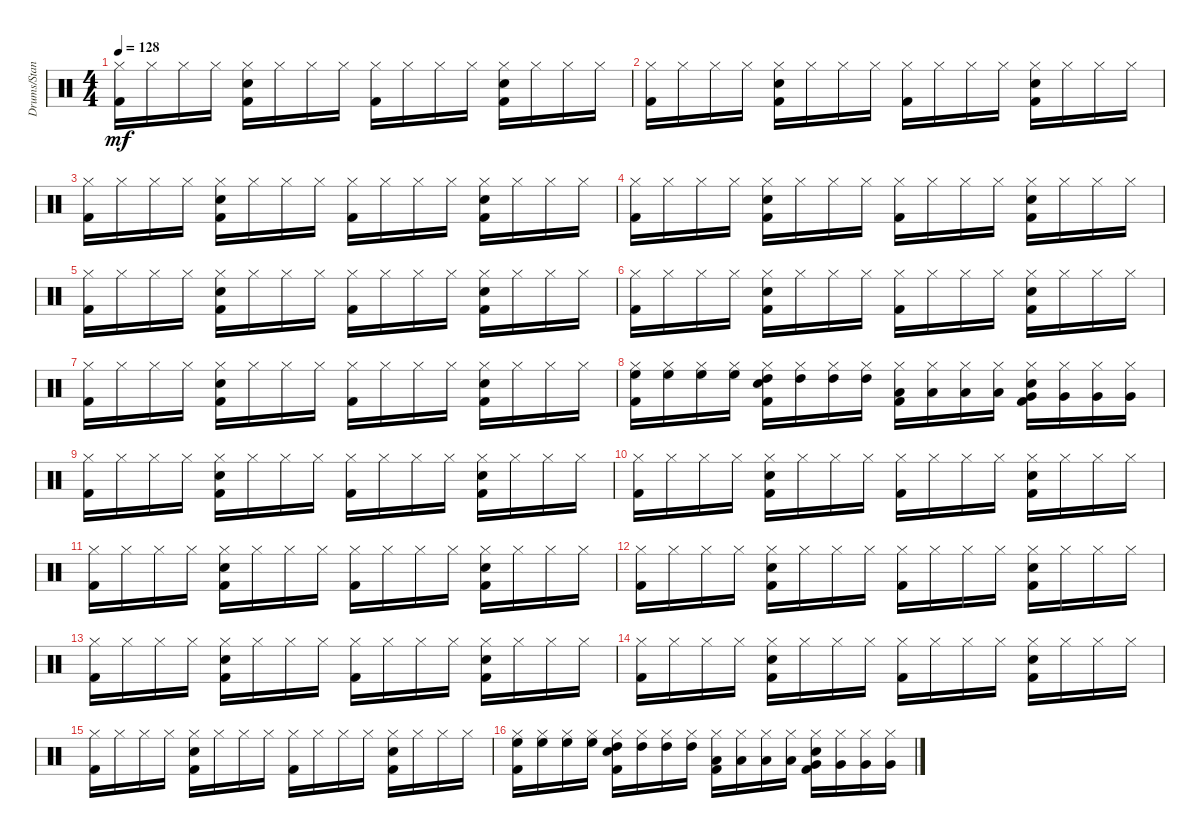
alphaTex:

\track ("Drums/Standard" "Drums/Stan") {instrument percussion}
\staff {score}
\articulation defaults
\ts (4 4)
\tempo 128
\clef neutral
\ks c
("Hi-Hat (closed)" "Kick (hit) 2").16{dy mf} "Hi-Hat (closed)".16 "Hi-Hat (closed)".16 "Hi-Hat (closed)".16 ("Hi-Hat (closed)" "Kick (hit) 2" "Snare (hit) 2").16 "Hi-Hat (closed)".16 "Hi-Hat (closed)".16 "Hi-Hat (closed)".16 ("Hi-Hat (closed)" "Kick (hit) 2").16 "Hi-Hat (closed)".16 "Hi-Hat (closed)".16 "Hi-Hat (closed)".16 ("Snare (hit) 2" "Hi-Hat (closed)" "Kick (hit) 2").16 "Hi-Hat (closed)".16 "Hi-Hat (closed)".16 "Hi-Hat (closed)".16 |
("Hi-Hat (closed)" "Kick (hit) 2").16 "Hi-Hat (closed)".16 "Hi-Hat (closed)".16 "Hi-Hat (closed)".16 ("Hi-Hat (closed)" "Kick (hit) 2" "Snare (hit) 2").16 "Hi-Hat (closed)".16 "Hi-Hat (closed)".16 "Hi-Hat (closed)".16 ("Hi-Hat (closed)" "Kick (hit) 2").16 "Hi-Hat (closed)".16 "Hi-Hat (closed)".16 "Hi-Hat (closed)".16 ("Snare (hit) 2" "Hi-Hat (closed)" "Kick (hit) 2").16 "Hi-Hat (closed)".16 "Hi-Hat (closed)".16 "Hi-Hat (closed)".16 |
("Hi-Hat (closed)" "Kick (hit) 2").16 "Hi-Hat (closed)".16 "Hi-Hat (closed)".16 "Hi-Hat (closed)".16 ("Hi-Hat (closed)" "Kick (hit) 2" "Snare (hit) 2").16 "Hi-Hat (closed)".16 "Hi-Hat (closed)".16 "Hi-Hat (closed)".16 ("Hi-Hat (closed)" "Kick (hit) 2").16 "Hi-Hat (closed)".16 "Hi-Hat (closed)".16 "Hi-Hat (closed)".16 ("Snare (hit) 2" "Hi-Hat (closed)" "Kick (hit) 2").16 "Hi-Hat (closed)".16 "Hi-Hat (closed)".16 "Hi-Hat (closed)".16 |
("Hi-Hat (closed)" "Kick (hit) 2").16 "Hi-Hat (closed)".16 "Hi-Hat (closed)".16 "Hi-Hat (closed)".16 ("Hi-Hat (closed)" "Kick (hit) 2" "Snare (hit) 2").16 "Hi-Hat (closed)".16 "Hi-Hat (closed)".16 "Hi-Hat (closed)".16 ("Hi-Hat (closed)" "Kick (hit) 2").16 "Hi-Hat (closed)".16 "Hi-Hat (closed)".16 "Hi-Hat (closed)".16 ("Snare (hit) 2" "Hi-Hat (closed)" "Kick (hit) 2").16 "Hi-Hat (closed)".16 "Hi-Hat (closed)".16 "Hi-Hat (closed)".16 |
("Kick (hit) 2" "Hi-Hat (closed)").16 "Hi-Hat (closed)".16 "Hi-Hat (closed)".16 "Hi-Hat (closed)".16 ("Snare (hit) 2" "Kick (hit) 2" "Hi-Hat (closed)").16 "Hi-Hat (closed)".16 "Hi-Hat (closed)".16 "Hi-Hat (closed)".16 ("Kick (hit) 2" "Hi-Hat (closed)").16 "Hi-Hat (closed)".16 "Hi-Hat (closed)".16 "Hi-Hat (closed)".16 ("Kick (hit) 2" "Hi-Hat (closed)" "Snare (hit) 2").16 "Hi-Hat (closed)".16 "Hi-Hat (closed)".16 "Hi-Hat (closed)".16 |
("Kick (hit) 2" "Hi-Hat (closed)").16 "Hi-Hat (closed)".16 "Hi-Hat (closed)".16 "Hi-Hat (closed)".16 ("Snare (hit) 2" "Kick (hit) 2" "Hi-Hat (closed)").16 "Hi-Hat (closed)".16 "Hi-Hat (closed)".16 "Hi-Hat (closed)".16 ("Kick (hit) 2" "Hi-Hat (closed)").16 "Hi-Hat (closed)".16 "Hi-Hat (closed)".16 "Hi-Hat (closed)".16 ("Kick (hit) 2" "Hi-Hat (closed)" "Snare (hit) 2").16 "Hi-Hat (closed)".16 "Hi-Hat (closed)".16 "Hi-Hat (closed)".16 |
("Kick (hit) 2" "Hi-Hat (closed)").16 "Hi-Hat (closed)".16 "Hi-Hat (closed)".16 "Hi-Hat (closed)".16 ("Snare (hit) 2" "Kick (hit) 2" "Hi-Hat (closed)").16 "Hi-Hat (closed)".16 "Hi-Hat (closed)".16 "Hi-Hat (closed)".16 ("Kick (hit) 2" "Hi-Hat (closed)").16 "Hi-Hat (closed)".16 "Hi-Hat (closed)".16 "Hi-Hat (closed)".16 ("Kick (hit) 2" "Hi-Hat (closed)" "Snare (hit) 2").16 "Hi-Hat (closed)".16 "Hi-Hat (closed)".16 "Hi-Hat (closed)".16 |
("Kick (hit) 2" "Hi-Hat (closed)" "High Floor Tom (hit)").16 ("Hi-Hat (closed)" "High Floor Tom (hit)").16 ("Hi-Hat (closed)" "High Floor Tom (hit)").16 ("Hi-Hat (closed)" "High Floor Tom (hit)").16 ("Snare (hit) 2" "Kick (hit) 2" "Hi-Hat (closed)" "High Tom (hit)").16 ("Hi-Hat (closed)" "High Tom (hit)").16 ("Hi-Hat (closed)" "High Tom (hit)").16 ("Hi-Hat (closed)" "High Tom (hit)").16 ("Hi-Hat (closed)" "Kick (hit) 2" "Low Tom (hit)").16 ("Hi-Hat (closed)" "Low Tom (hit)").16 ("Hi-Hat (closed)" "Low Tom (hit)").16 ("Hi-Hat (closed)" "Low Tom (hit)").16 ("Hi-Hat (closed)" "Snare (hit) 2" "Kick (hit) 2" "Very Low Tom (hit)").16 ("Hi-Hat (closed)" "Very Low Tom (hit)").16 ("Hi-Hat (closed)" "Very Low Tom (hit)").16 ("Hi-Hat (closed)" "Very Low Tom (hit)").16 |
("Kick (hit) 2" "Hi-Hat (closed)").16 "Hi-Hat (closed)".16 "Hi-Hat (closed)".16 "Hi-Hat (closed)".16 ("Snare (hit) 2" "Kick (hit) 2" "Hi-Hat (closed)").16 "Hi-Hat (closed)".16 "Hi-Hat (closed)".16 "Hi-Hat (closed)".16 ("Kick (hit) 2" "Hi-Hat (closed)").16 "Hi-Hat (closed)".16 "Hi-Hat (closed)".16 "Hi-Hat (closed)".16 ("Kick (hit) 2" "Hi-Hat (closed)" "Snare (hit) 2").16 "Hi-Hat (closed)".16 "Hi-Hat (closed)".16 "Hi-Hat (closed)".16 |
("Hi-Hat (closed)" "Kick (hit) 2").16 "Hi-Hat (closed)".16 "Hi-Hat (closed)".16 "Hi-Hat (closed)".16 ("Hi-Hat (closed)" "Kick (hit) 2" "Snare (hit) 2").16 "Hi-Hat (closed)".16 "Hi-Hat (closed)".16 "Hi-Hat (closed)".16 ("Kick (hit) 2" "Hi-Hat (closed)").16 "Hi-Hat (closed)".16 "Hi-Hat (closed)".16 "Hi-Hat (closed)".16 ("Kick (hit) 2" "Snare (hit) 2" "Hi-Hat (closed)").16 "Hi-Hat (closed)".16 "Hi-Hat (closed)".16 "Hi-Hat (closed)".16 |
("Hi-Hat (closed)" "Kick (hit) 2").16 "Hi-Hat (closed)".16 "Hi-Hat (closed)".16 "Hi-Hat (closed)".16 ("Hi-Hat (closed)" "Kick (hit) 2" "Snare (hit) 2").16 "Hi-Hat (closed)".16 "Hi-Hat (closed)".16 "Hi-Hat (closed)".16 ("Hi-Hat (closed)" "Kick (hit) 2").16 "Hi-Hat (closed)".16 "Hi-Hat (closed)".16 "Hi-Hat (closed)".16 ("Snare (hit) 2" "Hi-Hat (closed)" "Kick (hit) 2").16 "Hi-Hat (closed)".16 "Hi-Hat (closed)".16 "Hi-Hat (closed)".16 |
("Kick (hit) 2" "Hi-Hat (closed)").16 "Hi-Hat (closed)".16 "Hi-Hat (closed)".16 "Hi-Hat (closed)".16 ("Snare (hit) 2" "Kick (hit) 2" "Hi-Hat (closed)").16 "Hi-Hat (closed)".16 "Hi-Hat (closed)".16 "Hi-Hat (closed)".16 ("Hi-Hat (closed)" "Kick (hit) 2").16 "Hi-Hat (closed)".16 "Hi-Hat (closed)".16 "Hi-Hat (closed)".16 ("Hi-Hat (closed)" "Snare (hit) 2" "Kick (hit) 2").16 "Hi-Hat (closed)".16 "Hi-Hat (closed)".16 "Hi-Hat (closed)".16 |
("Kick (hit) 2" "Hi-Hat (closed)").16 "Hi-Hat (closed)".16 "Hi-Hat (closed)".16 "Hi-Hat (closed)".16 ("Snare (hit) 2" "Kick (hit) 2" "Hi-Hat (closed)").16 "Hi-Hat (closed)".16 "Hi-Hat (closed)".16 "Hi-Hat (closed)".16 ("Kick (hit) 2" "Hi-Hat (closed)").16 "Hi-Hat (closed)".16 "Hi-Hat (closed)".16 "Hi-Hat (closed)".16 ("Kick (hit) 2" "Hi-Hat (closed)" "Snare (hit) 2").16 "Hi-Hat (closed)".16 "Hi-Hat (closed)".16 "Hi-Hat (closed)".16 |
("Hi-Hat (closed)" "Kick (hit) 2").16 "Hi-Hat (closed)".16 "Hi-Hat (closed)".16 "Hi-Hat (closed)".16 ("Hi-Hat (closed)" "Kick (hit) 2" "Snare (hit) 2").16 "Hi-Hat (closed)".16 "Hi-Hat (closed)".16 "Hi-Hat (closed)".16 ("Kick (hit) 2" "Hi-Hat (closed)").16 "Hi-Hat (closed)".16 "Hi-Hat (closed)".16 "Hi-Hat (closed)".16 ("Kick (hit) 2" "Snare (hit) 2" "Hi-Hat (closed)").16 "Hi-Hat (closed)".16 "Hi-Hat (closed)".16 "Hi-Hat (closed)".16 |
("Hi-Hat (closed)" "Kick (hit) 2").16 "Hi-Hat (closed)".16 "Hi-Hat (closed)".16 "Hi-Hat (closed)".16 ("Hi-Hat (closed)" "Kick (hit) 2" "Snare (hit) 2").16 "Hi-Hat (closed)".16 "Hi-Hat (closed)".16 "Hi-Hat (closed)".16 ("Hi-Hat (closed)" "Kick (hit) 2").16 "Hi-Hat (closed)".16 "Hi-Hat (closed)".16 "Hi-Hat (closed)".16 ("Snare (hit) 2" "Hi-Hat (closed)" "Kick (hit) 2").16 "Hi-Hat (closed)".16 "Hi-Hat (closed)".16 "Hi-Hat (closed)".16 |
("Kick (hit) 2" "Hi-Hat (closed)" "High Floor Tom (hit)").16 ("Hi-Hat (closed)" "High Floor Tom (hit)").16 ("Hi-Hat (closed)" "High Floor Tom (hit)").16 ("Hi-Hat (closed)" "High Floor Tom (hit)").16 ("Snare (hit) 2" "Kick (hit) 2" "Hi-Hat (closed)" "High Tom (hit)").16 ("Hi-Hat (closed)" "High Tom (hit)").16 ("Hi-Hat (closed)" "High Tom (hit)").16 ("Hi-Hat (closed)" "High Tom (hit)").16 ("Hi-Hat (closed)" "Kick (hit) 2" "Low Tom (hit)").16 ("Hi-Hat (closed)" "Low Tom (hit)").16 ("Hi-Hat (closed)" "Low Tom (hit)").16 ("Hi-Hat (closed)" "Low Tom (hit)").16 ("Hi-Hat (closed)" "Snare (hit) 2" "Kick (hit) 2" "Very Low Tom (hit)").16 ("Hi-Hat (closed)" "Very Low Tom (hit)").16 ("Hi-Hat (closed)" "Very Low Tom (hit)").16 ("Hi-Hat (closed)" "Very Low Tom (hit)").16
